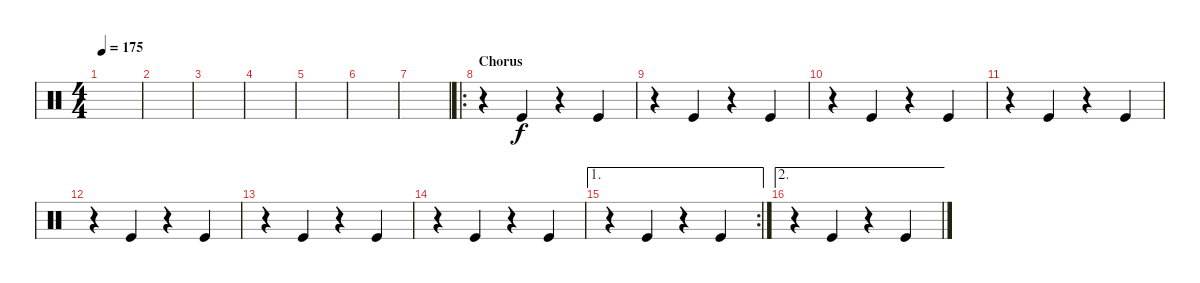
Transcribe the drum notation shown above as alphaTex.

\defaultSystemsLayout 4
\bracketExtendMode nobrackets
\singleTrackTrackNamePolicy hidden
\multiTrackTrackNamePolicy hidden
\firstSystemTrackNameOrientation horizontal
\otherSystemsTrackNameOrientation horizontal
\track ("Tambourine" "Tamb.") {instrument percussion}
\staff {score}
\articulation defaults
\ts (4 4)
\tempo 175
\clef neutral
\ks c
|
|
|
|
|
|
|
\ro
\section ("" "Chorus")
r.4 "Kick (hit)".4 r.4 "Kick (hit)".4 |
r.4 "Kick (hit)".4 r.4 "Kick (hit)".4 |
r.4 "Kick (hit)".4 r.4 "Kick (hit)".4 |
r.4 "Kick (hit)".4 r.4 "Kick (hit)".4 |
r.4 "Kick (hit)".4 r.4 "Kick (hit)".4 |
r.4 "Kick (hit)".4 r.4 "Kick (hit)".4 |
r.4 "Kick (hit)".4 r.4 "Kick (hit)".4 |
\ae 1
\rc 2
r.4 "Kick (hit)".4 r.4 "Kick (hit)".4 |
\ae 2
r.4 "Kick (hit)".4 r.4 "Kick (hit)".4
